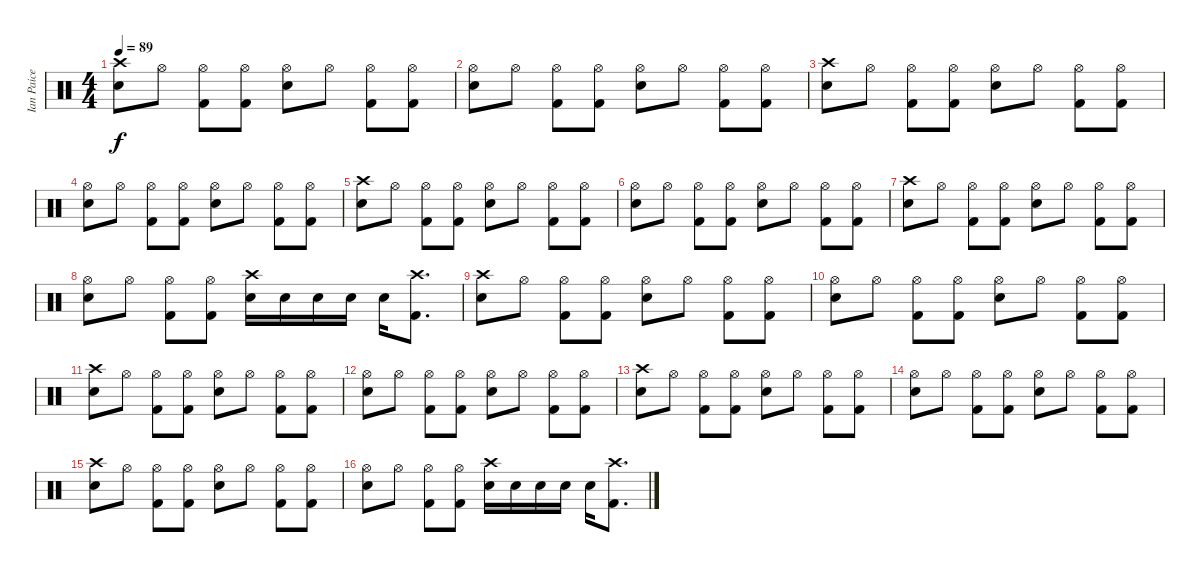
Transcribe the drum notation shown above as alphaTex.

\track ("Ian Paice" "Ian Paice") {instrument percussion}
\staff {score}
\articulation defaults
\ts (4 4)
\tempo 89
\clef neutral
\ks c
("Crash high (hit)" "Electric Snare (hit)").8{dy f} "Hi-Hat (open)".8 ("Hi-Hat (open)" "Kick (hit) 2").8 ("Hi-Hat (open)" "Kick (hit) 2").8 ("Hi-Hat (open)" "Electric Snare (hit)").8 "Hi-Hat (open)".8 ("Hi-Hat (open)" "Kick (hit) 2").8 ("Hi-Hat (open)" "Kick (hit) 2").8 |
("Hi-Hat (open)" "Electric Snare (hit)").8 "Hi-Hat (open)".8 ("Hi-Hat (open)" "Kick (hit) 2").8 ("Hi-Hat (open)" "Kick (hit) 2").8 ("Hi-Hat (open)" "Electric Snare (hit)").8 "Hi-Hat (open)".8 ("Hi-Hat (open)" "Kick (hit) 2").8 ("Hi-Hat (open)" "Kick (hit) 2").8 |
("Crash high (hit)" "Electric Snare (hit)").8 "Hi-Hat (open)".8 ("Hi-Hat (open)" "Kick (hit) 2").8 ("Hi-Hat (open)" "Kick (hit) 2").8 ("Hi-Hat (open)" "Electric Snare (hit)").8 "Hi-Hat (open)".8 ("Hi-Hat (open)" "Kick (hit) 2").8 ("Hi-Hat (open)" "Kick (hit) 2").8 |
("Hi-Hat (open)" "Electric Snare (hit)").8 "Hi-Hat (open)".8 ("Hi-Hat (open)" "Kick (hit) 2").8 ("Hi-Hat (open)" "Kick (hit) 2").8 ("Hi-Hat (open)" "Electric Snare (hit)").8 "Hi-Hat (open)".8 ("Hi-Hat (open)" "Kick (hit) 2").8 ("Hi-Hat (open)" "Kick (hit) 2").8 |
("Crash high (hit)" "Electric Snare (hit)").8 "Hi-Hat (open)".8 ("Hi-Hat (open)" "Kick (hit) 2").8 ("Hi-Hat (open)" "Kick (hit) 2").8 ("Hi-Hat (open)" "Electric Snare (hit)").8 "Hi-Hat (open)".8 ("Hi-Hat (open)" "Kick (hit) 2").8 ("Hi-Hat (open)" "Kick (hit) 2").8 |
("Hi-Hat (open)" "Electric Snare (hit)").8 "Hi-Hat (open)".8 ("Hi-Hat (open)" "Kick (hit) 2").8 ("Hi-Hat (open)" "Kick (hit) 2").8 ("Hi-Hat (open)" "Electric Snare (hit)").8 "Hi-Hat (open)".8 ("Hi-Hat (open)" "Kick (hit) 2").8 ("Hi-Hat (open)" "Kick (hit) 2").8 |
("Crash high (hit)" "Electric Snare (hit)").8 "Hi-Hat (open)".8 ("Hi-Hat (open)" "Kick (hit) 2").8 ("Hi-Hat (open)" "Kick (hit) 2").8 ("Hi-Hat (open)" "Electric Snare (hit)").8 "Hi-Hat (open)".8 ("Hi-Hat (open)" "Kick (hit) 2").8 ("Hi-Hat (open)" "Kick (hit) 2").8 |
("Hi-Hat (open)" "Electric Snare (hit)").8 "Hi-Hat (open)".8 ("Hi-Hat (open)" "Kick (hit) 2").8 ("Hi-Hat (open)" "Kick (hit) 2").8 ("Crash high (hit)" "Electric Snare (hit)").16 "Electric Snare (hit)".16 "Electric Snare (hit)".16 "Electric Snare (hit)".16 "Electric Snare (hit)".16 ("Crash high (hit)" "Kick (hit) 2").8{d} |
("Crash high (hit)" "Electric Snare (hit)").8 "Hi-Hat (open)".8 ("Hi-Hat (open)" "Kick (hit) 2").8 ("Hi-Hat (open)" "Kick (hit) 2").8 ("Hi-Hat (open)" "Electric Snare (hit)").8 "Hi-Hat (open)".8 ("Hi-Hat (open)" "Kick (hit) 2").8 ("Hi-Hat (open)" "Kick (hit) 2").8 |
("Hi-Hat (open)" "Electric Snare (hit)").8 "Hi-Hat (open)".8 ("Hi-Hat (open)" "Kick (hit) 2").8 ("Hi-Hat (open)" "Kick (hit) 2").8 ("Hi-Hat (open)" "Electric Snare (hit)").8 "Hi-Hat (open)".8 ("Hi-Hat (open)" "Kick (hit) 2").8 ("Hi-Hat (open)" "Kick (hit) 2").8 |
("Crash high (hit)" "Electric Snare (hit)").8 "Hi-Hat (open)".8 ("Hi-Hat (open)" "Kick (hit) 2").8 ("Hi-Hat (open)" "Kick (hit) 2").8 ("Hi-Hat (open)" "Electric Snare (hit)").8 "Hi-Hat (open)".8 ("Hi-Hat (open)" "Kick (hit) 2").8 ("Hi-Hat (open)" "Kick (hit) 2").8 |
("Hi-Hat (open)" "Electric Snare (hit)").8 "Hi-Hat (open)".8 ("Hi-Hat (open)" "Kick (hit) 2").8 ("Hi-Hat (open)" "Kick (hit) 2").8 ("Hi-Hat (open)" "Electric Snare (hit)").8 "Hi-Hat (open)".8 ("Hi-Hat (open)" "Kick (hit) 2").8 ("Hi-Hat (open)" "Kick (hit) 2").8 |
("Crash high (hit)" "Electric Snare (hit)").8 "Hi-Hat (open)".8 ("Hi-Hat (open)" "Kick (hit) 2").8 ("Hi-Hat (open)" "Kick (hit) 2").8 ("Hi-Hat (open)" "Electric Snare (hit)").8 "Hi-Hat (open)".8 ("Hi-Hat (open)" "Kick (hit) 2").8 ("Hi-Hat (open)" "Kick (hit) 2").8 |
("Hi-Hat (open)" "Electric Snare (hit)").8 "Hi-Hat (open)".8 ("Hi-Hat (open)" "Kick (hit) 2").8 ("Hi-Hat (open)" "Kick (hit) 2").8 ("Hi-Hat (open)" "Electric Snare (hit)").8 "Hi-Hat (open)".8 ("Hi-Hat (open)" "Kick (hit) 2").8 ("Hi-Hat (open)" "Kick (hit) 2").8 |
("Crash high (hit)" "Electric Snare (hit)").8 "Hi-Hat (open)".8 ("Hi-Hat (open)" "Kick (hit) 2").8 ("Hi-Hat (open)" "Kick (hit) 2").8 ("Hi-Hat (open)" "Electric Snare (hit)").8 "Hi-Hat (open)".8 ("Hi-Hat (open)" "Kick (hit) 2").8 ("Hi-Hat (open)" "Kick (hit) 2").8 |
("Hi-Hat (open)" "Electric Snare (hit)").8 "Hi-Hat (open)".8 ("Hi-Hat (open)" "Kick (hit) 2").8 ("Hi-Hat (open)" "Kick (hit) 2").8 ("Crash high (hit)" "Electric Snare (hit)").16 "Electric Snare (hit)".16 "Electric Snare (hit)".16 "Electric Snare (hit)".16 "Electric Snare (hit)".16 ("Crash high (hit)" "Kick (hit) 2").8{d}
